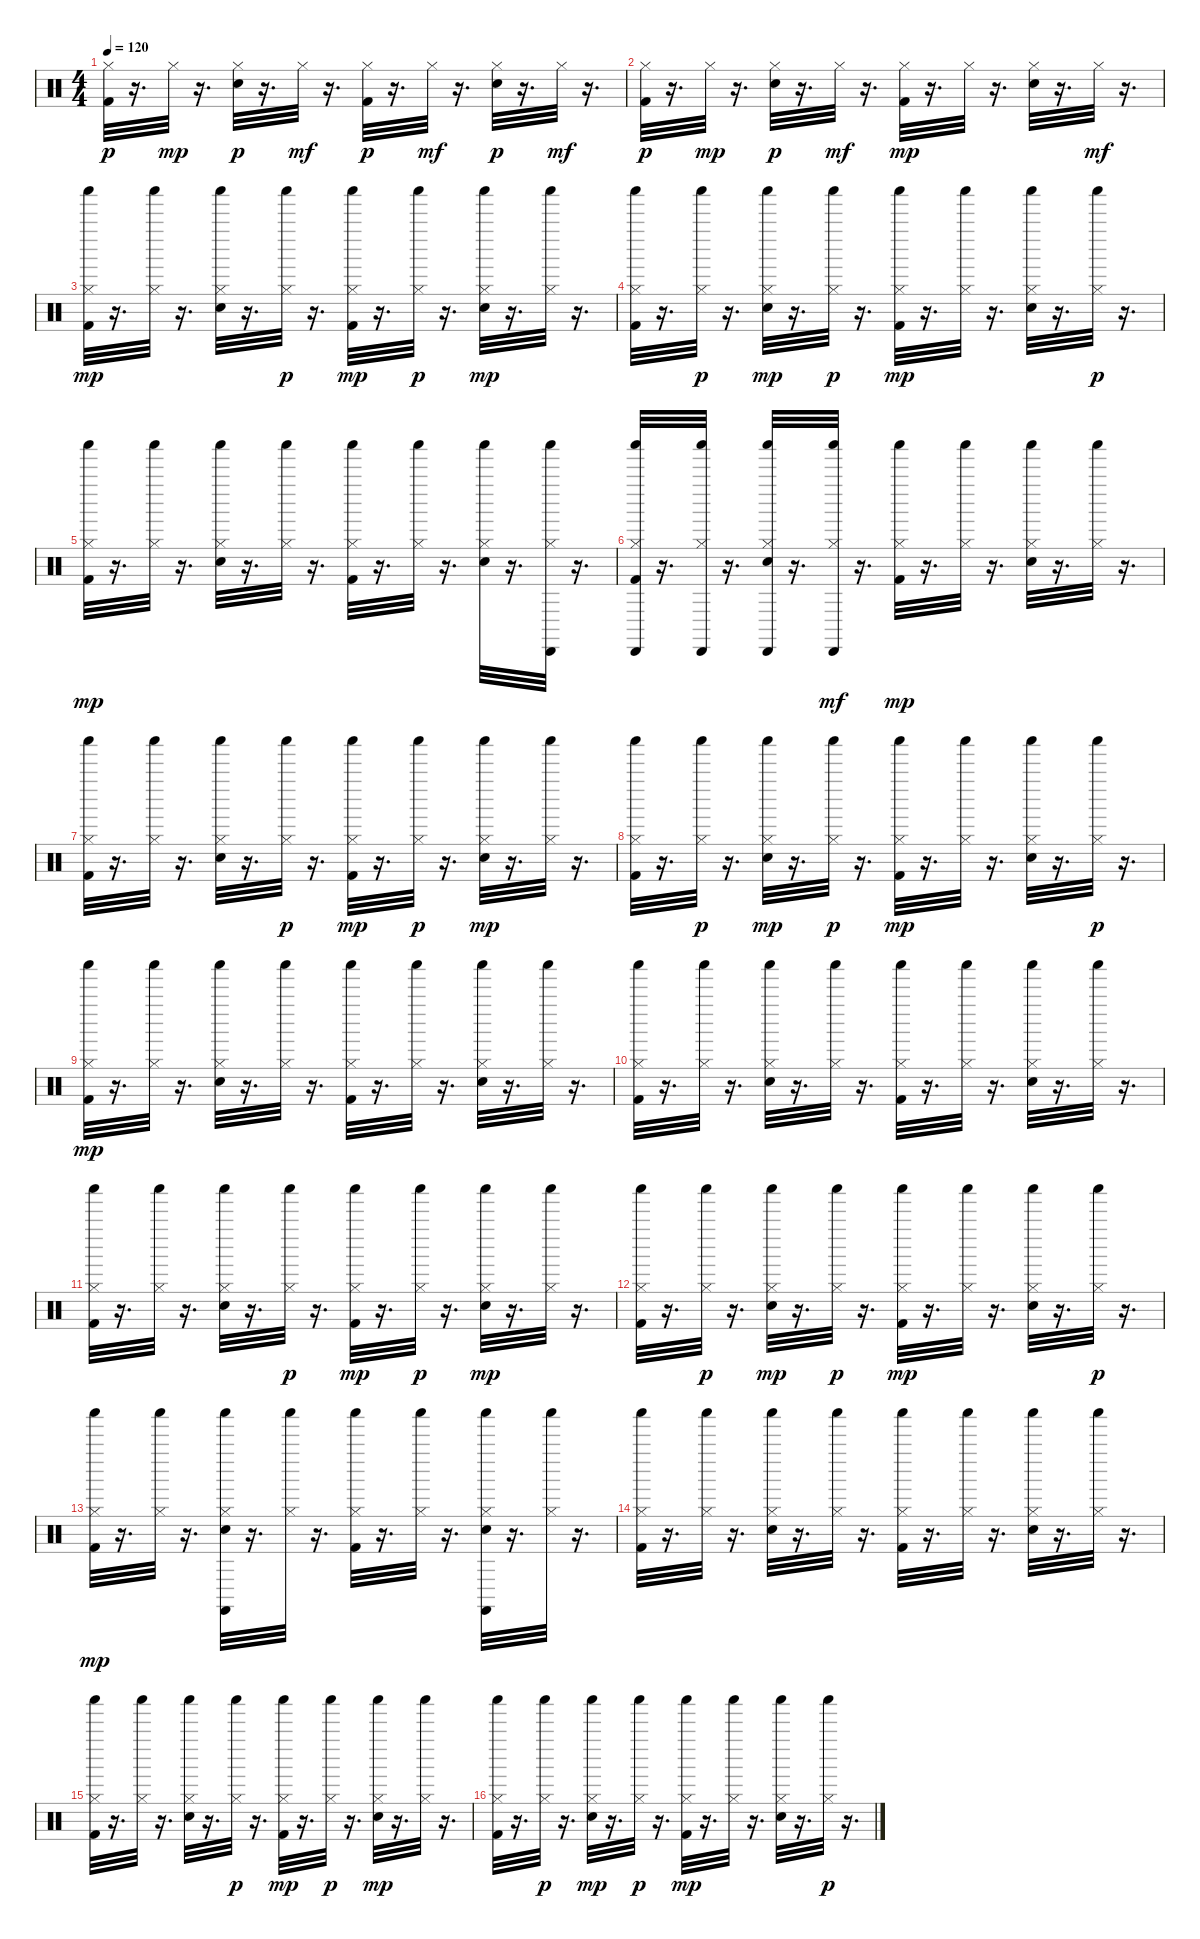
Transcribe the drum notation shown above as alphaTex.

\track "" {instrument percussion}
\staff {score}
\articulation defaults
\ts (4 4)
\tempo 120
\clef neutral
\ks c
("Kick (hit) 2" "Hi-Hat (closed)").32{dy p} r.16{d} "Hi-Hat (closed)".32{dy mp} r.16{d} ("Electric Snare (hit)" "Hi-Hat (closed)").32{dy p} r.16{d} "Hi-Hat (closed)".32{dy mf} r.16{d} ("Kick (hit) 2" "Hi-Hat (closed)").32{dy p} r.16{d} "Hi-Hat (closed)".32{dy mf} r.16{d} ("Electric Snare (hit)" "Hi-Hat (closed)").32{dy p} r.16{d} "Hi-Hat (closed)".32{dy mf} r.16{d} |
("Kick (hit) 2" "Hi-Hat (closed)").32{dy p} r.16{d} "Hi-Hat (closed)".32{dy mp} r.16{d} ("Electric Snare (hit)" "Hi-Hat (closed)").32{dy p} r.16{d} "Hi-Hat (closed)".32{dy mf} r.16{d} ("Kick (hit) 2" "Hi-Hat (closed)").32{dy mp} r.16{d} "Hi-Hat (closed)".32 r.16{d} ("Electric Snare (hit)" "Hi-Hat (closed)").32 r.16{d} "Hi-Hat (closed)".32{dy mf} r.16{d} |
("Kick (hit) 2" "Hi-Hat (closed)" "Shaker (hit)").32{dy mp} r.16{d} ("Hi-Hat (closed)" "Shaker (hit)").32 r.16{d} ("Electric Snare (hit)" "Hi-Hat (closed)" "Shaker (hit)").32 r.16{d} ("Hi-Hat (closed)" "Shaker (hit)").32{dy p} r.16{d} ("Kick (hit) 2" "Hi-Hat (closed)" "Shaker (hit)").32{dy mp} r.16{d} ("Hi-Hat (closed)" "Shaker (hit)").32{dy p} r.16{d} ("Electric Snare (hit)" "Hi-Hat (closed)" "Shaker (hit)").32{dy mp} r.16{d} ("Hi-Hat (closed)" "Shaker (hit)").32 r.16{d} |
("Kick (hit) 2" "Hi-Hat (closed)" "Shaker (hit)").32 r.16{d} ("Hi-Hat (closed)" "Shaker (hit)").32{dy p} r.16{d} ("Electric Snare (hit)" "Hi-Hat (closed)" "Shaker (hit)").32{dy mp} r.16{d} ("Hi-Hat (closed)" "Shaker (hit)").32{dy p} r.16{d} ("Kick (hit) 2" "Hi-Hat (closed)" "Shaker (hit)").32{dy mp} r.16{d} ("Hi-Hat (closed)" "Shaker (hit)").32 r.16{d} ("Electric Snare (hit)" "Hi-Hat (closed)" "Shaker (hit)").32 r.16{d} ("Hi-Hat (closed)" "Shaker (hit)").32{dy p} r.16{d} |
("Kick (hit) 2" "Hi-Hat (closed)" "Shaker (hit)").32{dy mp} r.16{d} ("Hi-Hat (closed)" "Shaker (hit)").32 r.16{d} ("Electric Snare (hit)" "Hi-Hat (closed)" "Shaker (hit)").32 r.16{d} ("Hi-Hat (closed)" "Shaker (hit)").32 r.16{d} ("Kick (hit) 2" "Hi-Hat (closed)" "Shaker (hit)").32 r.16{d} ("Hi-Hat (closed)" "Shaker (hit)").32 r.16{d} ("Electric Snare (hit)" "Hi-Hat (closed)" "Shaker (hit)").32 r.16{d} ("Hi-Hat (closed)" "Cabasa (hit)" "Shaker (hit)").32 r.16{d} |
("Kick (hit) 2" "Hi-Hat (closed)" "Cabasa (hit)" "Shaker (hit)").32 r.16{d} ("Hi-Hat (closed)" "Cabasa (hit)" "Shaker (hit)").32 r.16{d} ("Electric Snare (hit)" "Hi-Hat (closed)" "Cabasa (hit)" "Shaker (hit)").32 r.16{d} ("Hi-Hat (closed)" "Shaker (hit)" "Cabasa (hit)").32{dy mf} r.16{d} ("Kick (hit) 2" "Hi-Hat (closed)" "Shaker (hit)").32{dy mp} r.16{d} ("Hi-Hat (closed)" "Shaker (hit)").32 r.16{d} ("Electric Snare (hit)" "Hi-Hat (closed)" "Shaker (hit)").32 r.16{d} ("Hi-Hat (closed)" "Shaker (hit)").32 r.16{d} |
("Kick (hit) 2" "Hi-Hat (closed)" "Shaker (hit)").32 r.16{d} ("Hi-Hat (closed)" "Shaker (hit)").32 r.16{d} ("Electric Snare (hit)" "Hi-Hat (closed)" "Shaker (hit)").32 r.16{d} ("Hi-Hat (closed)" "Shaker (hit)").32{dy p} r.16{d} ("Kick (hit) 2" "Hi-Hat (closed)" "Shaker (hit)").32{dy mp} r.16{d} ("Hi-Hat (closed)" "Shaker (hit)").32{dy p} r.16{d} ("Electric Snare (hit)" "Hi-Hat (closed)" "Shaker (hit)").32{dy mp} r.16{d} ("Hi-Hat (closed)" "Shaker (hit)").32 r.16{d} |
("Kick (hit) 2" "Hi-Hat (closed)" "Shaker (hit)").32 r.16{d} ("Hi-Hat (closed)" "Shaker (hit)").32{dy p} r.16{d} ("Electric Snare (hit)" "Hi-Hat (closed)" "Shaker (hit)").32{dy mp} r.16{d} ("Hi-Hat (closed)" "Shaker (hit)").32{dy p} r.16{d} ("Kick (hit) 2" "Hi-Hat (closed)" "Shaker (hit)").32{dy mp} r.16{d} ("Hi-Hat (closed)" "Shaker (hit)").32 r.16{d} ("Electric Snare (hit)" "Hi-Hat (closed)" "Shaker (hit)").32 r.16{d} ("Hi-Hat (closed)" "Shaker (hit)").32{dy p} r.16{d} |
("Kick (hit) 2" "Hi-Hat (closed)" "Shaker (hit)").32{dy mp} r.16{d} ("Hi-Hat (closed)" "Shaker (hit)").32 r.16{d} ("Electric Snare (hit)" "Hi-Hat (closed)" "Shaker (hit)").32 r.16{d} ("Hi-Hat (closed)" "Shaker (hit)").32 r.16{d} ("Kick (hit) 2" "Hi-Hat (closed)" "Shaker (hit)").32 r.16{d} ("Hi-Hat (closed)" "Shaker (hit)").32 r.16{d} ("Electric Snare (hit)" "Hi-Hat (closed)" "Shaker (hit)").32 r.16{d} ("Hi-Hat (closed)" "Shaker (hit)").32 r.16{d} |
("Kick (hit) 2" "Hi-Hat (closed)" "Shaker (hit)").32 r.16{d} ("Hi-Hat (closed)" "Shaker (hit)").32 r.16{d} ("Electric Snare (hit)" "Hi-Hat (closed)" "Shaker (hit)").32 r.16{d} ("Hi-Hat (closed)" "Shaker (hit)").32 r.16{d} ("Kick (hit) 2" "Hi-Hat (closed)" "Shaker (hit)").32 r.16{d} ("Hi-Hat (closed)" "Shaker (hit)").32 r.16{d} ("Electric Snare (hit)" "Hi-Hat (closed)" "Shaker (hit)").32 r.16{d} ("Hi-Hat (closed)" "Shaker (hit)").32 r.16{d} |
("Kick (hit) 2" "Hi-Hat (closed)" "Shaker (hit)").32 r.16{d} ("Hi-Hat (closed)" "Shaker (hit)").32 r.16{d} ("Electric Snare (hit)" "Hi-Hat (closed)" "Shaker (hit)").32 r.16{d} ("Hi-Hat (closed)" "Shaker (hit)").32{dy p} r.16{d} ("Kick (hit) 2" "Hi-Hat (closed)" "Shaker (hit)").32{dy mp} r.16{d} ("Hi-Hat (closed)" "Shaker (hit)").32{dy p} r.16{d} ("Electric Snare (hit)" "Hi-Hat (closed)" "Shaker (hit)").32{dy mp} r.16{d} ("Hi-Hat (closed)" "Shaker (hit)").32 r.16{d} |
("Kick (hit) 2" "Hi-Hat (closed)" "Shaker (hit)").32 r.16{d} ("Hi-Hat (closed)" "Shaker (hit)").32{dy p} r.16{d} ("Electric Snare (hit)" "Hi-Hat (closed)" "Shaker (hit)").32{dy mp} r.16{d} ("Hi-Hat (closed)" "Shaker (hit)").32{dy p} r.16{d} ("Kick (hit) 2" "Hi-Hat (closed)" "Shaker (hit)").32{dy mp} r.16{d} ("Hi-Hat (closed)" "Shaker (hit)").32 r.16{d} ("Electric Snare (hit)" "Hi-Hat (closed)" "Shaker (hit)").32 r.16{d} ("Hi-Hat (closed)" "Shaker (hit)").32{dy p} r.16{d} |
("Kick (hit) 2" "Hi-Hat (closed)" "Shaker (hit)").32{dy mp} r.16{d} ("Hi-Hat (closed)" "Shaker (hit)").32 r.16{d} ("Electric Snare (hit)" "Hi-Hat (closed)" "Shaker (hit)" "Castanets (hit)").32 r.16{d} ("Hi-Hat (closed)" "Shaker (hit)").32 r.16{d} ("Kick (hit) 2" "Hi-Hat (closed)" "Shaker (hit)").32 r.16{d} ("Hi-Hat (closed)" "Shaker (hit)").32 r.16{d} ("Electric Snare (hit)" "Hi-Hat (closed)" "Shaker (hit)" "Castanets (hit)").32 r.16{d} ("Hi-Hat (closed)" "Shaker (hit)").32 r.16{d} |
("Kick (hit) 2" "Hi-Hat (closed)" "Shaker (hit)").32 r.16{d} ("Hi-Hat (closed)" "Shaker (hit)").32 r.16{d} ("Electric Snare (hit)" "Hi-Hat (closed)" "Shaker (hit)").32 r.16{d} ("Hi-Hat (closed)" "Shaker (hit)").32 r.16{d} ("Kick (hit) 2" "Hi-Hat (closed)" "Shaker (hit)").32 r.16{d} ("Hi-Hat (closed)" "Shaker (hit)").32 r.16{d} ("Electric Snare (hit)" "Hi-Hat (closed)" "Shaker (hit)").32 r.16{d} ("Hi-Hat (closed)" "Shaker (hit)").32 r.16{d} |
("Kick (hit) 2" "Hi-Hat (closed)" "Shaker (hit)").32 r.16{d} ("Hi-Hat (closed)" "Shaker (hit)").32 r.16{d} ("Electric Snare (hit)" "Hi-Hat (closed)" "Shaker (hit)").32 r.16{d} ("Hi-Hat (closed)" "Shaker (hit)").32{dy p} r.16{d} ("Kick (hit) 2" "Hi-Hat (closed)" "Shaker (hit)").32{dy mp} r.16{d} ("Hi-Hat (closed)" "Shaker (hit)").32{dy p} r.16{d} ("Electric Snare (hit)" "Hi-Hat (closed)" "Shaker (hit)").32{dy mp} r.16{d} ("Hi-Hat (closed)" "Shaker (hit)").32 r.16{d} |
("Kick (hit) 2" "Hi-Hat (closed)" "Shaker (hit)").32 r.16{d} ("Hi-Hat (closed)" "Shaker (hit)").32{dy p} r.16{d} ("Electric Snare (hit)" "Hi-Hat (closed)" "Shaker (hit)").32{dy mp} r.16{d} ("Hi-Hat (closed)" "Shaker (hit)").32{dy p} r.16{d} ("Kick (hit) 2" "Hi-Hat (closed)" "Shaker (hit)").32{dy mp} r.16{d} ("Hi-Hat (closed)" "Shaker (hit)").32 r.16{d} ("Electric Snare (hit)" "Hi-Hat (closed)" "Shaker (hit)").32 r.16{d} ("Hi-Hat (closed)" "Shaker (hit)").32{dy p} r.16{d}
